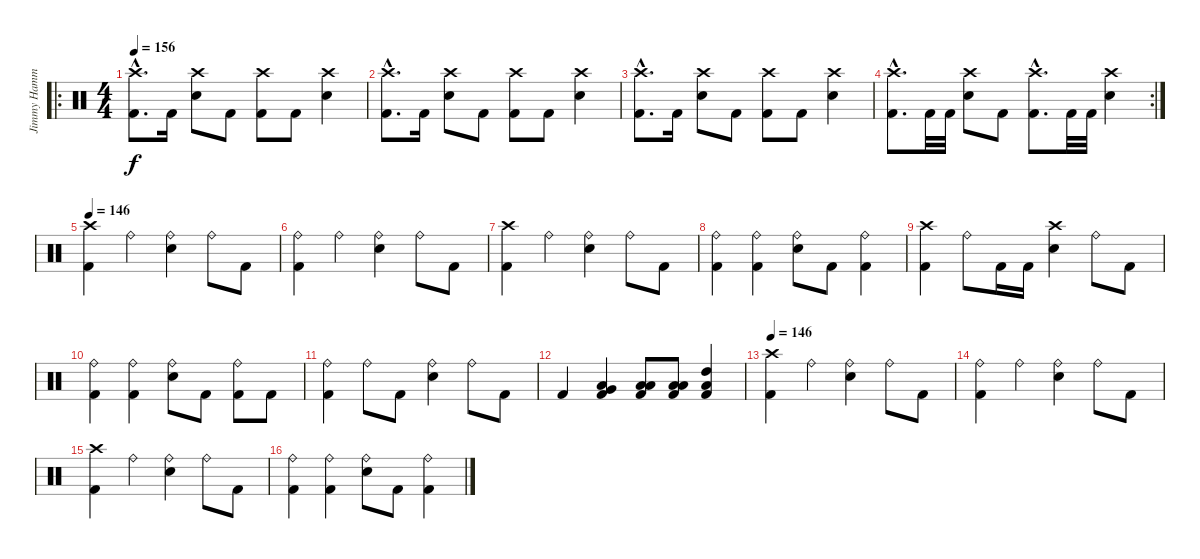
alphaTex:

\track ("Jimmy Hammer" "Jimmy Hamm") {instrument percussion}
\staff {score}
\articulation defaults
\ro
\ts (4 4)
\tempo 156
\clef neutral
\ks c
("Kick (hit) 2"{hac} "Crash high (hit)"{hac}).8{d dy f} "Kick (hit) 2".16 ("Snare (hit) 2" "Crash high (hit)").8 "Kick (hit) 2".8 ("Kick (hit) 2" "Crash high (hit)").8 "Kick (hit) 2".8 ("Snare (hit) 2" "Crash high (hit)").4 |
("Kick (hit) 2"{hac} "Crash high (hit)"{hac}).8{d} "Kick (hit) 2".16 ("Snare (hit) 2" "Crash high (hit)").8 "Kick (hit) 2".8 ("Kick (hit) 2" "Crash high (hit)").8 "Kick (hit) 2".8 ("Snare (hit) 2" "Crash high (hit)").4 |
("Kick (hit) 2"{hac} "Crash high (hit)"{hac}).8{d} "Kick (hit) 2".16 ("Snare (hit) 2" "Crash high (hit)").8 "Kick (hit) 2".8 ("Kick (hit) 2" "Crash high (hit)").8 "Kick (hit) 2".8 ("Snare (hit) 2" "Crash high (hit)").4 |
\rc 2
("Kick (hit) 2"{hac} "Crash high (hit)"{hac}).8{d} "Kick (hit) 2".32 "Kick (hit) 2".32 ("Snare (hit) 2" "Crash high (hit)").8 "Kick (hit) 2".8 ("Kick (hit) 2" "Crash high (hit)"{hac}).8{d} "Kick (hit) 2".32 "Kick (hit) 2".32 ("Snare (hit) 2" "Crash high (hit)").4 |
\tempo 146
("Kick (hit) 2" "Crash high (hit)").4 "Ride (bell)".4 ("Snare (hit) 2" "Ride (bell)").4 "Ride (bell)".8 "Kick (hit) 2".8 |
("Kick (hit) 2" "Ride (bell)").4 "Ride (bell)".4 ("Snare (hit) 2" "Ride (bell)").4 "Ride (bell)".8 "Kick (hit) 2".8 |
("Kick (hit) 2" "Crash high (hit)").4 "Ride (bell)".4 ("Snare (hit) 2" "Ride (bell)").4 "Ride (bell)".8 "Kick (hit) 2".8 |
("Kick (hit) 2" "Ride (bell)").4 ("Kick (hit) 2" "Ride (bell)").4 ("Snare (hit) 2" "Ride (bell)").8 "Kick (hit) 2".8 ("Kick (hit) 2" "Ride (bell)").4 |
("Kick (hit) 2" "Crash high (hit)").4 "Ride (bell)".8 "Kick (hit) 2".16 "Kick (hit) 2".16 ("Snare (hit) 2" "Crash high (hit)").4 "Ride (bell)".8 "Kick (hit) 2".8 |
("Kick (hit) 2" "Ride (bell)").4 ("Kick (hit) 2" "Ride (bell)").4 ("Snare (hit) 2" "Ride (bell)").8 "Kick (hit) 2".8 ("Kick (hit) 2" "Ride (bell)").8 "Kick (hit) 2".8 |
("Kick (hit) 2" "Ride (bell)").4 "Ride (bell)".8 "Kick (hit) 2".8 ("Snare (hit) 2" "Ride (bell)").4 "Ride (bell)".8 "Kick (hit) 2".8 |
"Kick (hit) 2".4 ("Kick (hit) 2" "Very Low Tom (hit)" "Low Floor Tom (hit)").4 ("Kick (hit) 2" "Low Floor Tom (hit)" "Low Tom (hit)").8 ("Kick (hit) 2" "Low Floor Tom (hit)" "Low Tom (hit)").8 ("Kick (hit) 2" "Low Tom (hit)" "High Tom (hit)").4 |
\tempo 146
("Kick (hit) 2" "Crash high (hit)").4 "Ride (bell)".4 ("Snare (hit) 2" "Ride (bell)").4 "Ride (bell)".8 "Kick (hit) 2".8 |
("Kick (hit) 2" "Ride (bell)").4 "Ride (bell)".4 ("Snare (hit) 2" "Ride (bell)").4 "Ride (bell)".8 "Kick (hit) 2".8 |
("Kick (hit) 2" "Crash high (hit)").4 "Ride (bell)".4 ("Snare (hit) 2" "Ride (bell)").4 "Ride (bell)".8 "Kick (hit) 2".8 |
("Kick (hit) 2" "Ride (bell)").4 ("Kick (hit) 2" "Ride (bell)").4 ("Snare (hit) 2" "Ride (bell)").8 "Kick (hit) 2".8 ("Kick (hit) 2" "Ride (bell)").4
